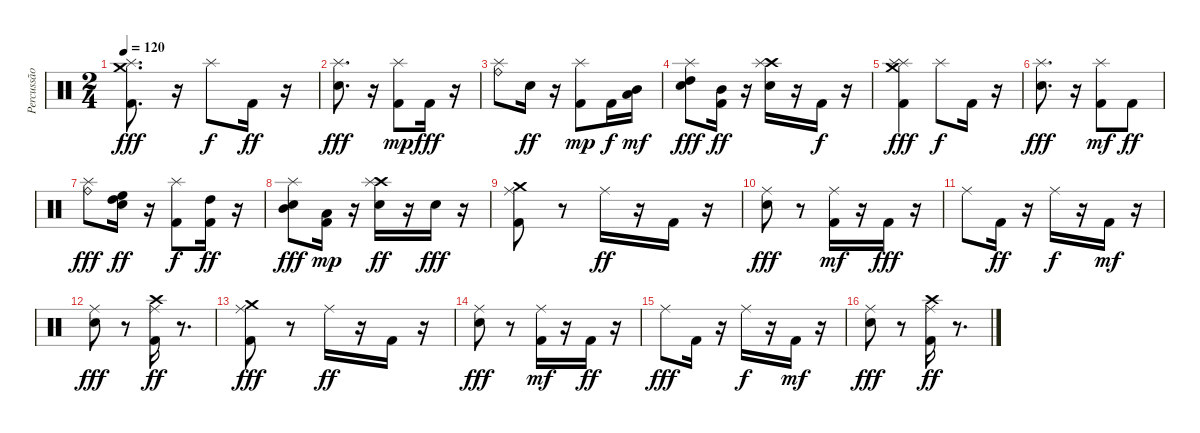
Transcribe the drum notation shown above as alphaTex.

\track ("Percussão" "Percussão") {instrument percussion}
\staff {score}
\articulation defaults
\ts (2 4)
\tempo 120
\clef neutral
\ks c
("Crash medium (hit)" "Kick (hit) 2" "Splash (hit)").8{d dy fff} r.16 "Splash (hit)".8{dy f} "Kick (hit) 2".16{dy ff} r.16 |
("Snare (hit) 2" "Splash (hit)").8{d dy fff} r.16 ("Kick (hit) 2" "Splash (hit)").8{dy mp} "Kick (hit) 2".16{dy fff} r.16 |
("Splash (hit)" "Ride (bell)").8 "Snare (hit) 2".16{dy ff} r.16 ("Kick (hit) 2" "Splash (hit)").8{dy mp} "Kick (hit) 2".16{dy f} ("Low Tom (hit)" "Mid Tom (hit)").16{dy mf} |
("Snare (hit) 2" "Splash (hit)" "High Tom (hit)").8{dy fff} ("Kick (hit) 2" "Mid Tom (hit)").16{dy ff} r.16 ("Crash high (hit)" "Snare (hit) 2" "Splash (hit)").16 r.16 "Kick (hit) 2".16{dy f} r.16 |
("Crash medium (hit)" "Splash (hit)" "Kick (hit) 2" "Splash (hit)").4{dy fff} "Splash (hit)".8{dy f} "Kick (hit) 2".16 r.16 |
("Snare (hit) 2"{x} "Splash (hit)").8{d dy fff} r.16 ("Kick (hit) 2" "Splash (hit)").8{dy mf} "Kick (hit) 2".8{dy ff} |
("Ride (bell)" "Splash (hit)").8{dy fff} ("High Tom (hit)" "Snare (hit) 2" "High Floor Tom (hit)").16{dy ff} r.16 ("Kick (hit) 2" "Splash (hit)").8{dy f} ("High Tom (hit)" "Kick (hit) 2").16{dy ff} r.16 |
("Mid Tom (hit)" "Snare (hit) 2" "Splash (hit)").8{dy fff} ("Low Tom (hit)" "Kick (hit) 2").16{dy mp} r.16 ("Crash high (hit)" "Snare (hit) 2" "Splash (hit)").16{dy ff} r.16 "Snare (hit) 2".16{dy fff} r.16 |
("Crash medium (hit)" "Kick (hit) 2" "Ride (middle)").8 r.8 "Ride (middle)".16{dy ff} r.16 "Kick (hit) 2".16 r.16 |
("Snare (hit) 2" "Ride (middle)").8{dy fff} r.8 ("Kick (hit) 2" "Ride (middle)").16{dy mf} r.16 "Kick (hit) 2".16{dy fff} r.16 |
"Ride (middle)".8 "Kick (hit) 2".16{dy ff} r.16 "Ride (middle)".16{dy f} r.16 "Kick (hit) 2".16{dy mf} r.16 |
("Snare (hit) 2" "Ride (middle)").8{dy fff} r.8 ("Crash high (hit)" "Kick (hit) 2" "Ride (middle)").16{dy ff} r.8{d} |
("Crash medium (hit)" "Kick (hit) 2" "Ride (middle)").8{dy fff} r.8 "Ride (middle)".16{dy ff} r.16 "Kick (hit) 2".16 r.16 |
("Snare (hit) 2" "Ride (middle)").8{dy fff} r.8 ("Kick (hit) 2" "Ride (middle)").16{dy mf} r.16 "Kick (hit) 2".16{dy ff} r.16 |
"Ride (middle)".8{dy fff} "Kick (hit) 2".16 r.16 "Ride (middle)".16{dy f} r.16 "Kick (hit) 2".16{dy mf} r.16 |
("Snare (hit) 2" "Ride (middle)").8{dy fff} r.8 ("Crash high (hit)" "Kick (hit) 2" "Ride (middle)").16{dy ff} r.8{d}
